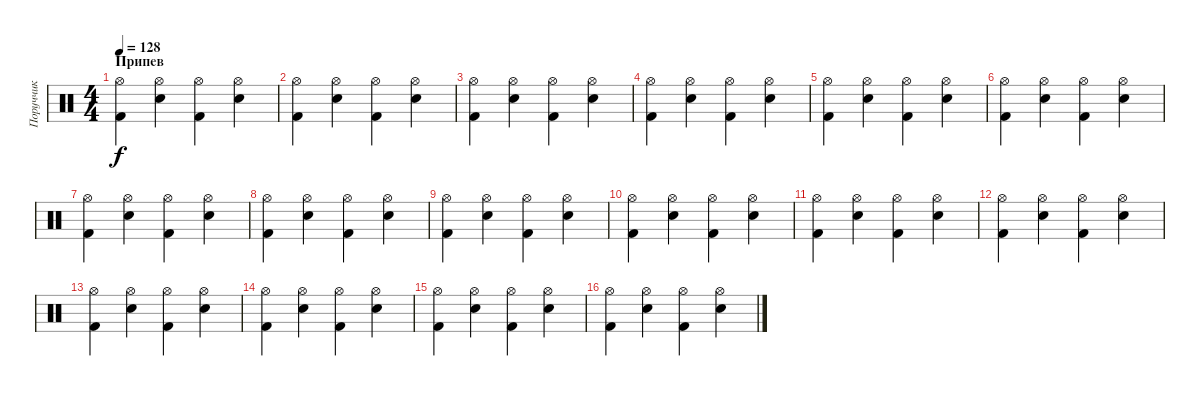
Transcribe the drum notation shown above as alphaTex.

\track ("Поруччик" "Поруччик") {instrument percussion}
\staff {score}
\articulation defaults
\ts (4 4)
\section ("" "Припев")
\tempo 128
\clef neutral
\ks c
("Hi-Hat (open)" "Kick (hit) 2").4{dy f} ("Hi-Hat (open)" "Electric Snare (hit)").4 ("Hi-Hat (open)" "Kick (hit) 2").4 ("Hi-Hat (open)" "Electric Snare (hit)").4 |
("Hi-Hat (open)" "Kick (hit) 2").4 ("Hi-Hat (open)" "Electric Snare (hit)").4 ("Hi-Hat (open)" "Kick (hit) 2").4 ("Hi-Hat (open)" "Electric Snare (hit)").4 |
("Hi-Hat (open)" "Kick (hit) 2").4 ("Hi-Hat (open)" "Electric Snare (hit)").4 ("Hi-Hat (open)" "Kick (hit) 2").4 ("Hi-Hat (open)" "Electric Snare (hit)").4 |
("Hi-Hat (open)" "Kick (hit) 2").4 ("Hi-Hat (open)" "Electric Snare (hit)").4 ("Hi-Hat (open)" "Kick (hit) 2").4 ("Hi-Hat (open)" "Electric Snare (hit)").4 |
("Hi-Hat (open)" "Kick (hit) 2").4 ("Hi-Hat (open)" "Electric Snare (hit)").4 ("Hi-Hat (open)" "Kick (hit) 2").4 ("Hi-Hat (open)" "Electric Snare (hit)").4 |
("Hi-Hat (open)" "Kick (hit) 2").4 ("Hi-Hat (open)" "Electric Snare (hit)").4 ("Hi-Hat (open)" "Kick (hit) 2").4 ("Hi-Hat (open)" "Electric Snare (hit)").4 |
("Hi-Hat (open)" "Kick (hit) 2").4 ("Hi-Hat (open)" "Electric Snare (hit)").4 ("Hi-Hat (open)" "Kick (hit) 2").4 ("Hi-Hat (open)" "Electric Snare (hit)").4 |
("Hi-Hat (open)" "Kick (hit) 2").4 ("Hi-Hat (open)" "Electric Snare (hit)").4 ("Hi-Hat (open)" "Kick (hit) 2").4 ("Hi-Hat (open)" "Electric Snare (hit)").4 |
("Hi-Hat (open)" "Kick (hit) 2").4 ("Hi-Hat (open)" "Electric Snare (hit)").4 ("Hi-Hat (open)" "Kick (hit) 2").4 ("Hi-Hat (open)" "Electric Snare (hit)").4 |
("Hi-Hat (open)" "Kick (hit) 2").4 ("Hi-Hat (open)" "Electric Snare (hit)").4 ("Hi-Hat (open)" "Kick (hit) 2").4 ("Hi-Hat (open)" "Electric Snare (hit)").4 |
("Hi-Hat (open)" "Kick (hit) 2").4 ("Hi-Hat (open)" "Electric Snare (hit)").4 ("Hi-Hat (open)" "Kick (hit) 2").4 ("Hi-Hat (open)" "Electric Snare (hit)").4 |
("Hi-Hat (open)" "Kick (hit) 2").4 ("Hi-Hat (open)" "Electric Snare (hit)").4 ("Hi-Hat (open)" "Kick (hit) 2").4 ("Hi-Hat (open)" "Electric Snare (hit)").4 |
("Hi-Hat (open)" "Kick (hit) 2").4 ("Hi-Hat (open)" "Electric Snare (hit)").4 ("Hi-Hat (open)" "Kick (hit) 2").4 ("Hi-Hat (open)" "Electric Snare (hit)").4 |
("Hi-Hat (open)" "Kick (hit) 2").4 ("Hi-Hat (open)" "Electric Snare (hit)").4 ("Hi-Hat (open)" "Kick (hit) 2").4 ("Hi-Hat (open)" "Electric Snare (hit)").4 |
("Hi-Hat (open)" "Kick (hit) 2").4 ("Hi-Hat (open)" "Electric Snare (hit)").4 ("Hi-Hat (open)" "Kick (hit) 2").4 ("Hi-Hat (open)" "Electric Snare (hit)").4 |
("Hi-Hat (open)" "Kick (hit) 2").4 ("Hi-Hat (open)" "Electric Snare (hit)").4 ("Hi-Hat (open)" "Kick (hit) 2").4 ("Hi-Hat (open)" "Electric Snare (hit)").4
